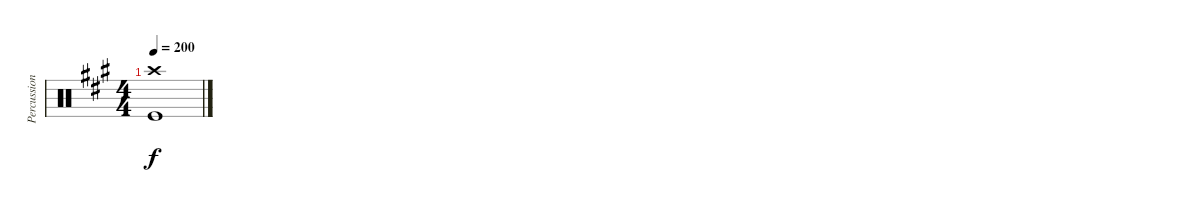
\track ("Percussion" "Percussion") {instrument percussion}
\staff {score}
\articulation defaults
\ts (4 4)
\tempo 200
\clef neutral
\ks a
("Kick (hit)" "Crash high (hit)").1{dy f}
